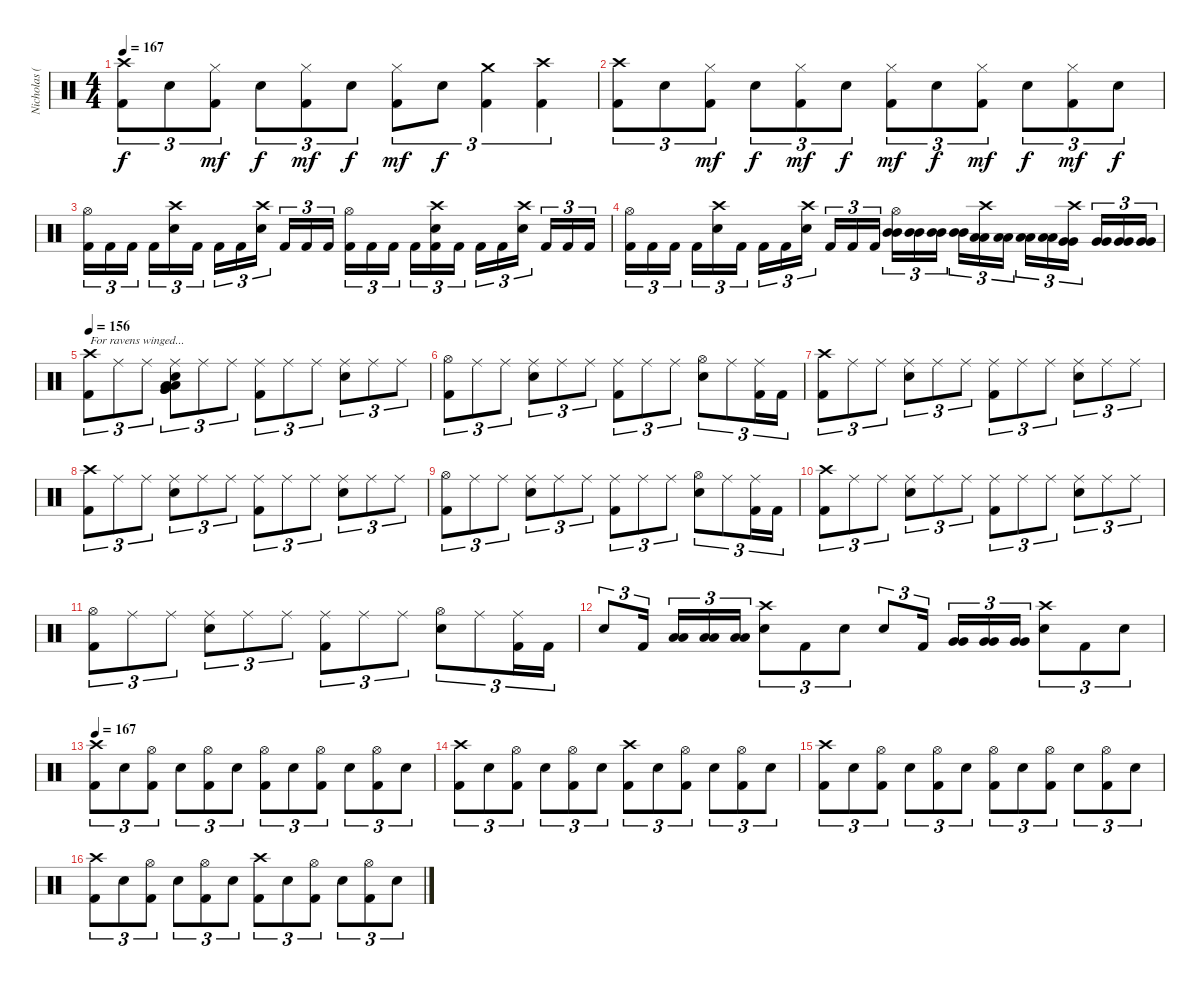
\track ("Nicholas (Drums)" "Nicholas (") {instrument percussion}
\staff {score}
\articulation defaults
\ts (4 4)
\tempo 167
\clef neutral
\ks c
("Crash high (hit)" "Kick (hit) 2").8{tu (3 2) dy f} "Electric Snare (hit)".8{tu (3 2)} ("Hi-Hat (closed)" "Kick (hit) 2").8{tu (3 2) dy mf} "Electric Snare (hit)".8{tu (3 2) dy f} ("Hi-Hat (closed)" "Kick (hit) 2").8{tu (3 2) dy mf} "Electric Snare (hit)".8{tu (3 2) dy f} ("Hi-Hat (closed)" "Kick (hit) 2").8{tu (3 2) dy mf} "Electric Snare (hit)".8{tu (3 2) dy f} ("Crash medium (hit)" "Kick (hit) 2").4{tu (3 2)} ("Crash high (hit)" "Kick (hit) 2").4{tu (3 2)} |
("Crash high (hit)" "Kick (hit) 2").8{tu (3 2)} "Electric Snare (hit)".8{tu (3 2)} ("Hi-Hat (closed)" "Kick (hit) 2").8{tu (3 2) dy mf} "Electric Snare (hit)".8{tu (3 2) dy f} ("Hi-Hat (closed)" "Kick (hit) 2").8{tu (3 2) dy mf} "Electric Snare (hit)".8{tu (3 2) dy f} ("Hi-Hat (closed)" "Kick (hit) 2").8{tu (3 2) dy mf} "Electric Snare (hit)".8{tu (3 2) dy f} ("Hi-Hat (closed)" "Kick (hit) 2").8{tu (3 2) dy mf} "Electric Snare (hit)".8{tu (3 2) dy f} ("Hi-Hat (closed)" "Kick (hit) 2").8{tu (3 2) dy mf} "Electric Snare (hit)".8{tu (3 2) dy f} |
("Hi-Hat (open)" "Kick (hit) 2").16{tu (3 2)} "Kick (hit) 2".16{tu (3 2)} "Kick (hit) 2".16{tu (3 2)} "Kick (hit) 2".16{tu (3 2)} ("Crash high (hit)" "Electric Snare (hit)").16{tu (3 2)} "Kick (hit) 2".16{tu (3 2)} "Kick (hit) 2".16{tu (3 2)} "Kick (hit) 2".16{tu (3 2)} ("Crash high (hit)" "Electric Snare (hit)").16{tu (3 2)} "Kick (hit) 2".16{tu (3 2)} "Kick (hit) 2".16{tu (3 2)} "Kick (hit) 2".16{tu (3 2)} ("Hi-Hat (open)" "Kick (hit) 2").16{tu (3 2)} "Kick (hit) 2".16{tu (3 2)} "Kick (hit) 2".16{tu (3 2)} "Kick (hit) 2".16{tu (3 2)} ("Crash high (hit)" "Electric Snare (hit)" "Kick (hit) 2").16{tu (3 2)} "Kick (hit) 2".16{tu (3 2)} "Kick (hit) 2".16{tu (3 2)} "Kick (hit) 2".16{tu (3 2)} ("Crash high (hit)" "Electric Snare (hit)").16{tu (3 2)} "Kick (hit) 2".16{tu (3 2)} "Kick (hit) 2".16{tu (3 2)} "Kick (hit) 2".16{tu (3 2)} |
("Hi-Hat (open)" "Kick (hit) 2").16{tu (3 2)} "Kick (hit) 2".16{tu (3 2)} "Kick (hit) 2".16{tu (3 2)} "Kick (hit) 2".16{tu (3 2)} ("Crash high (hit)" "Electric Snare (hit)").16{tu (3 2)} "Kick (hit) 2".16{tu (3 2)} "Kick (hit) 2".16{tu (3 2)} "Kick (hit) 2".16{tu (3 2)} ("Crash high (hit)" "Electric Snare (hit)").16{tu (3 2)} "Kick (hit) 2".16{tu (3 2)} "Kick (hit) 2".16{tu (3 2)} "Kick (hit) 2".16{tu (3 2)} ("Hi-Hat (open)" "Mid Tom (hit)" "Mid Tom (hit)").16{tu (3 2)} ("Mid Tom (hit)" "Mid Tom (hit)").16{tu (3 2)} ("Mid Tom (hit)" "Mid Tom (hit)").16{tu (3 2)} ("Mid Tom (hit)" "Mid Tom (hit)").16{tu (3 2)} ("Crash high (hit)" "Low Tom (hit)" "Low Tom (hit)").16{tu (3 2)} ("Low Tom (hit)" "Low Tom (hit)").16{tu (3 2)} ("Low Tom (hit)" "Low Tom (hit)").16{tu (3 2)} ("Low Tom (hit)" "Low Tom (hit)").16{tu (3 2)} ("Crash high (hit)" "Very Low Tom (hit)" "Very Low Tom (hit)").16{tu (3 2)} ("Very Low Tom (hit)" "Very Low Tom (hit)").16{tu (3 2)} ("Very Low Tom (hit)" "Very Low Tom (hit)").16{tu (3 2)} ("Very Low Tom (hit)" "Very Low Tom (hit)").16{tu (3 2)} |
\tempo 156
("Crash high (hit)" "Kick (hit) 2").8{tu (3 2) txt "For ravens winged..."} "Ride (middle)".8{tu (3 2)} "Ride (middle)".8{tu (3 2)} ("Ride (middle)" "Very Low Tom (hit)" "Electric Snare (hit)" "Low Floor Tom (hit)" "Very Low Tom (hit)" "Low Floor Tom (hit)").8{tu (3 2)} "Ride (middle)".8{tu (3 2)} "Ride (middle)".8{tu (3 2)} ("Ride (middle)" "Kick (hit) 2").8{tu (3 2)} "Ride (middle)".8{tu (3 2)} "Ride (middle)".8{tu (3 2)} ("Ride (middle)" "Electric Snare (hit)").8{tu (3 2)} "Ride (middle)".8{tu (3 2)} "Ride (middle)".8{tu (3 2)} |
("Hi-Hat (open)" "Kick (hit) 2").8{tu (3 2)} "Ride (middle)".8{tu (3 2)} "Ride (middle)".8{tu (3 2)} ("Ride (middle)" "Electric Snare (hit)").8{tu (3 2)} "Ride (middle)".8{tu (3 2)} "Ride (middle)".8{tu (3 2)} ("Ride (middle)" "Kick (hit) 2").8{tu (3 2)} "Ride (middle)".8{tu (3 2)} "Ride (middle)".8{tu (3 2)} ("Hi-Hat (open)" "Electric Snare (hit)").8{tu (3 2)} "Ride (middle)".8{tu (3 2)} ("Ride (middle)" "Kick (hit) 2").16{tu (3 2)} "Kick (hit) 2".16{tu (3 2)} |
("Crash high (hit)" "Kick (hit) 2").8{tu (3 2)} "Ride (middle)".8{tu (3 2)} "Ride (middle)".8{tu (3 2)} ("Ride (middle)" "Electric Snare (hit)").8{tu (3 2)} "Ride (middle)".8{tu (3 2)} "Ride (middle)".8{tu (3 2)} ("Ride (middle)" "Kick (hit) 2").8{tu (3 2)} "Ride (middle)".8{tu (3 2)} "Ride (middle)".8{tu (3 2)} ("Ride (middle)" "Electric Snare (hit)").8{tu (3 2)} "Ride (middle)".8{tu (3 2)} "Ride (middle)".8{tu (3 2)} |
("Crash high (hit)" "Kick (hit) 2").8{tu (3 2)} "Ride (middle)".8{tu (3 2)} "Ride (middle)".8{tu (3 2)} ("Ride (middle)" "Electric Snare (hit)").8{tu (3 2)} "Ride (middle)".8{tu (3 2)} "Ride (middle)".8{tu (3 2)} ("Ride (middle)" "Kick (hit) 2").8{tu (3 2)} "Ride (middle)".8{tu (3 2)} "Ride (middle)".8{tu (3 2)} ("Ride (middle)" "Electric Snare (hit)").8{tu (3 2)} "Ride (middle)".8{tu (3 2)} "Ride (middle)".8{tu (3 2)} |
("Hi-Hat (open)" "Kick (hit) 2").8{tu (3 2)} "Ride (middle)".8{tu (3 2)} "Ride (middle)".8{tu (3 2)} ("Ride (middle)" "Electric Snare (hit)").8{tu (3 2)} "Ride (middle)".8{tu (3 2)} "Ride (middle)".8{tu (3 2)} ("Ride (middle)" "Kick (hit) 2").8{tu (3 2)} "Ride (middle)".8{tu (3 2)} "Ride (middle)".8{tu (3 2)} ("Hi-Hat (open)" "Electric Snare (hit)").8{tu (3 2)} "Ride (middle)".8{tu (3 2)} ("Ride (middle)" "Kick (hit) 2").16{tu (3 2)} "Kick (hit) 2".16{tu (3 2)} |
("Crash high (hit)" "Kick (hit) 2").8{tu (3 2)} "Ride (middle)".8{tu (3 2)} "Ride (middle)".8{tu (3 2)} ("Ride (middle)" "Electric Snare (hit)").8{tu (3 2)} "Ride (middle)".8{tu (3 2)} "Ride (middle)".8{tu (3 2)} ("Ride (middle)" "Kick (hit) 2").8{tu (3 2)} "Ride (middle)".8{tu (3 2)} "Ride (middle)".8{tu (3 2)} ("Ride (middle)" "Electric Snare (hit)").8{tu (3 2)} "Ride (middle)".8{tu (3 2)} "Ride (middle)".8{tu (3 2)} |
("Hi-Hat (open)" "Kick (hit) 2").8{tu (3 2)} "Ride (middle)".8{tu (3 2)} "Ride (middle)".8{tu (3 2)} ("Ride (middle)" "Electric Snare (hit)").8{tu (3 2)} "Ride (middle)".8{tu (3 2)} "Ride (middle)".8{tu (3 2)} ("Ride (middle)" "Kick (hit) 2").8{tu (3 2)} "Ride (middle)".8{tu (3 2)} "Ride (middle)".8{tu (3 2)} ("Hi-Hat (open)" "Electric Snare (hit)").8{tu (3 2)} "Ride (middle)".8{tu (3 2)} ("Ride (middle)" "Kick (hit) 2").16{tu (3 2)} "Kick (hit) 2".16{tu (3 2)} |
"Electric Snare (hit)".8{tu (3 2)} "Kick (hit) 2".16{tu (3 2)} ("Low Tom (hit)" "Low Tom (hit)").16{tu (3 2) balance 10} ("Low Tom (hit)" "Low Tom (hit)").16{tu (3 2)} ("Low Tom (hit)" "Low Tom (hit)").16{tu (3 2)} ("Crash high (hit)" "Electric Snare (hit)").8{tu (3 2) balance 8} "Kick (hit) 2".8{tu (3 2)} "Electric Snare (hit)".8{tu (3 2)} "Electric Snare (hit)".8{tu (3 2)} "Kick (hit) 2".16{tu (3 2)} ("Very Low Tom (hit)" "Very Low Tom (hit)").16{tu (3 2) balance 5} ("Very Low Tom (hit)" "Very Low Tom (hit)").16{tu (3 2)} ("Very Low Tom (hit)" "Very Low Tom (hit)").16{tu (3 2)} ("Crash high (hit)" "Electric Snare (hit)").8{tu (3 2) balance 8} "Kick (hit) 2".8{tu (3 2)} "Electric Snare (hit)".8{tu (3 2)} |
\tempo 167
("Crash high (hit)" "Kick (hit) 2").8{tu (3 2)} "Electric Snare (hit)".8{tu (3 2)} ("Hi-Hat (open)" "Kick (hit) 2").8{tu (3 2)} "Electric Snare (hit)".8{tu (3 2)} ("Hi-Hat (open)" "Kick (hit) 2").8{tu (3 2)} "Electric Snare (hit)".8{tu (3 2)} ("Hi-Hat (open)" "Kick (hit) 2").8{tu (3 2)} "Electric Snare (hit)".8{tu (3 2)} ("Hi-Hat (open)" "Kick (hit) 2").8{tu (3 2)} "Electric Snare (hit)".8{tu (3 2)} ("Hi-Hat (open)" "Kick (hit) 2").8{tu (3 2)} "Electric Snare (hit)".8{tu (3 2)} |
("Crash high (hit)" "Kick (hit) 2").8{tu (3 2)} "Electric Snare (hit)".8{tu (3 2)} ("Hi-Hat (open)" "Kick (hit) 2").8{tu (3 2)} "Electric Snare (hit)".8{tu (3 2)} ("Hi-Hat (open)" "Kick (hit) 2").8{tu (3 2)} "Electric Snare (hit)".8{tu (3 2)} ("Crash high (hit)" "Kick (hit) 2").8{tu (3 2)} "Electric Snare (hit)".8{tu (3 2)} ("Hi-Hat (open)" "Kick (hit) 2").8{tu (3 2)} "Electric Snare (hit)".8{tu (3 2)} ("Hi-Hat (open)" "Kick (hit) 2").8{tu (3 2)} "Electric Snare (hit)".8{tu (3 2)} |
("Crash high (hit)" "Kick (hit) 2").8{tu (3 2)} "Electric Snare (hit)".8{tu (3 2)} ("Hi-Hat (open)" "Kick (hit) 2").8{tu (3 2)} "Electric Snare (hit)".8{tu (3 2)} ("Hi-Hat (open)" "Kick (hit) 2").8{tu (3 2)} "Electric Snare (hit)".8{tu (3 2)} ("Hi-Hat (open)" "Kick (hit) 2").8{tu (3 2)} "Electric Snare (hit)".8{tu (3 2)} ("Hi-Hat (open)" "Kick (hit) 2").8{tu (3 2)} "Electric Snare (hit)".8{tu (3 2)} ("Hi-Hat (open)" "Kick (hit) 2").8{tu (3 2)} "Electric Snare (hit)".8{tu (3 2)} |
("Crash high (hit)" "Kick (hit) 2").8{tu (3 2)} "Electric Snare (hit)".8{tu (3 2)} ("Hi-Hat (open)" "Kick (hit) 2").8{tu (3 2)} "Electric Snare (hit)".8{tu (3 2)} ("Hi-Hat (open)" "Kick (hit) 2").8{tu (3 2)} "Electric Snare (hit)".8{tu (3 2)} ("Crash high (hit)" "Kick (hit) 2").8{tu (3 2)} "Electric Snare (hit)".8{tu (3 2)} ("Hi-Hat (open)" "Kick (hit) 2").8{tu (3 2)} "Electric Snare (hit)".8{tu (3 2)} ("Hi-Hat (open)" "Kick (hit) 2").8{tu (3 2)} "Electric Snare (hit)".8{tu (3 2)}
